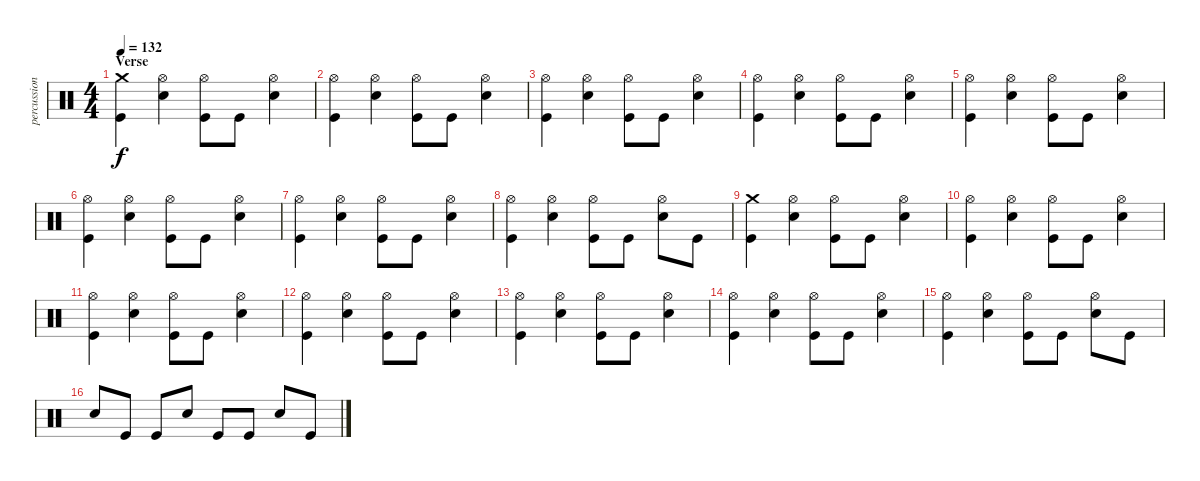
\track ("percussion" "percussion") {instrument percussion}
\staff {score}
\articulation defaults
\ts (4 4)
\section ("" "Verse")
\tempo 132
\clef neutral
\ks c
("Crash medium (hit)" "Kick (hit)").4{dy f} ("Snare (hit) 2" "Hi-Hat (open)").4 ("Hi-Hat (open)" "Kick (hit)").8 "Kick (hit)".8 ("Snare (hit) 2" "Hi-Hat (open)").4 |
("Hi-Hat (open)" "Kick (hit)").4 ("Snare (hit) 2" "Hi-Hat (open)").4 ("Hi-Hat (open)" "Kick (hit)").8 "Kick (hit)".8 ("Snare (hit) 2" "Hi-Hat (open)").4 |
("Hi-Hat (open)" "Kick (hit)").4 ("Snare (hit) 2" "Hi-Hat (open)").4 ("Hi-Hat (open)" "Kick (hit)").8 "Kick (hit)".8 ("Snare (hit) 2" "Hi-Hat (open)").4 |
("Hi-Hat (open)" "Kick (hit)").4 ("Snare (hit) 2" "Hi-Hat (open)").4 ("Hi-Hat (open)" "Kick (hit)").8 "Kick (hit)".8 ("Snare (hit) 2" "Hi-Hat (open)").4 |
("Hi-Hat (open)" "Kick (hit)").4 ("Snare (hit) 2" "Hi-Hat (open)").4 ("Hi-Hat (open)" "Kick (hit)").8 "Kick (hit)".8 ("Snare (hit) 2" "Hi-Hat (open)").4 |
("Hi-Hat (open)" "Kick (hit)").4 ("Snare (hit) 2" "Hi-Hat (open)").4 ("Hi-Hat (open)" "Kick (hit)").8 "Kick (hit)".8 ("Snare (hit) 2" "Hi-Hat (open)").4 |
("Hi-Hat (open)" "Kick (hit)").4 ("Snare (hit) 2" "Hi-Hat (open)").4 ("Hi-Hat (open)" "Kick (hit)").8 "Kick (hit)".8 ("Snare (hit) 2" "Hi-Hat (open)").4 |
("Hi-Hat (open)" "Kick (hit)").4 ("Snare (hit) 2" "Hi-Hat (open)").4 ("Hi-Hat (open)" "Kick (hit)").8 "Kick (hit)".8 ("Snare (hit) 2" "Hi-Hat (open)").8 "Kick (hit)".8 |
("Crash medium (hit)" "Kick (hit)").4 ("Snare (hit) 2" "Hi-Hat (open)").4 ("Hi-Hat (open)" "Kick (hit)").8 "Kick (hit)".8 ("Snare (hit) 2" "Hi-Hat (open)").4 |
("Hi-Hat (open)" "Kick (hit)").4 ("Snare (hit) 2" "Hi-Hat (open)").4 ("Hi-Hat (open)" "Kick (hit)").8 "Kick (hit)".8 ("Snare (hit) 2" "Hi-Hat (open)").4 |
("Hi-Hat (open)" "Kick (hit)").4 ("Snare (hit) 2" "Hi-Hat (open)").4 ("Hi-Hat (open)" "Kick (hit)").8 "Kick (hit)".8 ("Snare (hit) 2" "Hi-Hat (open)").4 |
("Hi-Hat (open)" "Kick (hit)").4 ("Snare (hit) 2" "Hi-Hat (open)").4 ("Hi-Hat (open)" "Kick (hit)").8 "Kick (hit)".8 ("Snare (hit) 2" "Hi-Hat (open)").4 |
("Hi-Hat (open)" "Kick (hit)").4 ("Snare (hit) 2" "Hi-Hat (open)").4 ("Hi-Hat (open)" "Kick (hit)").8 "Kick (hit)".8 ("Snare (hit) 2" "Hi-Hat (open)").4 |
("Hi-Hat (open)" "Kick (hit)").4 ("Snare (hit) 2" "Hi-Hat (open)").4 ("Hi-Hat (open)" "Kick (hit)").8 "Kick (hit)".8 ("Snare (hit) 2" "Hi-Hat (open)").4 |
("Hi-Hat (open)" "Kick (hit)").4 ("Snare (hit) 2" "Hi-Hat (open)").4 ("Hi-Hat (open)" "Kick (hit)").8 "Kick (hit)".8 ("Snare (hit) 2" "Hi-Hat (open)").8 "Kick (hit)".8 |
"Snare (hit) 2".8 "Kick (hit)".8 "Kick (hit)".8 "Snare (hit) 2".8 "Kick (hit)".8 "Kick (hit)".8 "Snare (hit) 2".8 "Kick (hit)".8
